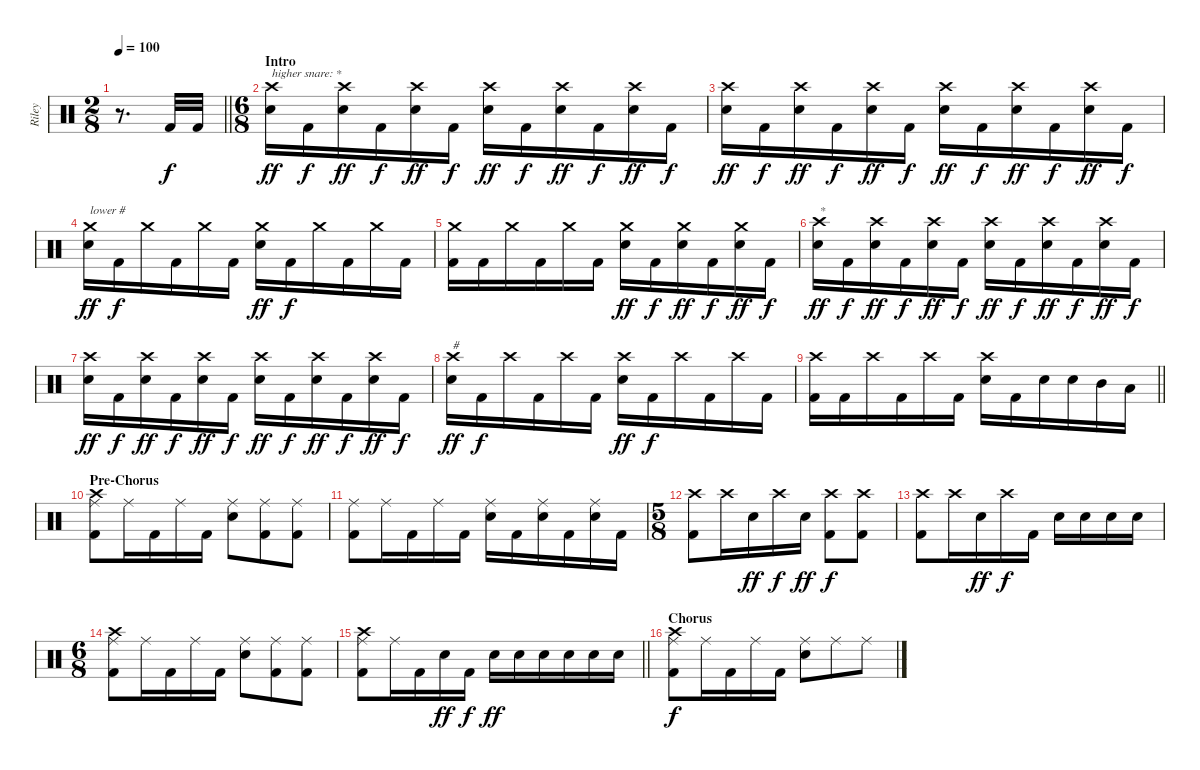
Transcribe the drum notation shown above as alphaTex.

\track ("Riley" "Riley") {instrument percussion}
\staff {score}
\articulation defaults
\ts (2 8)
\tempo 100
\clef neutral
\barLineRight lightlight
\ks c
r.8{d dy f} "Kick (hit) 2".32 "Kick (hit) 2".32 |
\ts (6 8)
\section ("" "Intro")
("Crash high (hit)" "Electric Snare (hit)").16{txt "higher snare: *" dy ff} "Kick (hit) 2".16{dy f} ("Crash high (hit)" "Electric Snare (hit)").16{dy ff} "Kick (hit) 2".16{dy f} ("Crash high (hit)" "Electric Snare (hit)").16{dy ff} "Kick (hit) 2".16{dy f} ("Crash high (hit)" "Electric Snare (hit)").16{dy ff} "Kick (hit) 2".16{dy f} ("Crash high (hit)" "Electric Snare (hit)").16{dy ff} "Kick (hit) 2".16{dy f} ("Crash high (hit)" "Electric Snare (hit)").16{dy ff} "Kick (hit) 2".16{dy f} |
("Crash high (hit)" "Electric Snare (hit)").16{dy ff} "Kick (hit) 2".16{dy f} ("Crash high (hit)" "Electric Snare (hit)").16{dy ff} "Kick (hit) 2".16{dy f} ("Crash high (hit)" "Electric Snare (hit)").16{dy ff} "Kick (hit) 2".16{dy f} ("Crash high (hit)" "Electric Snare (hit)").16{dy ff} "Kick (hit) 2".16{dy f} ("Crash high (hit)" "Electric Snare (hit)").16{dy ff} "Kick (hit) 2".16{dy f} ("Crash high (hit)" "Electric Snare (hit)").16{dy ff} "Kick (hit) 2".16{dy f} |
("Crash medium (hit)" "Electric Snare (hit)").16{txt "lower #" dy ff} "Kick (hit) 2".16{dy f} "Crash medium (hit)".16 "Kick (hit) 2".16 "Crash medium (hit)".16 "Kick (hit) 2".16 ("Crash medium (hit)" "Electric Snare (hit)").16{dy ff} "Kick (hit) 2".16{dy f} "Crash medium (hit)".16 "Kick (hit) 2".16 "Crash medium (hit)".16 "Kick (hit) 2".16 |
("Crash medium (hit)" "Kick (hit) 2").16 "Kick (hit) 2".16 "Crash medium (hit)".16 "Kick (hit) 2".16 "Crash medium (hit)".16 "Kick (hit) 2".16 ("Crash medium (hit)" "Electric Snare (hit)").16{dy ff} "Kick (hit) 2".16{dy f} ("Crash medium (hit)" "Electric Snare (hit)").16{dy ff} "Kick (hit) 2".16{dy f} ("Crash medium (hit)" "Electric Snare (hit)").16{dy ff} "Kick (hit) 2".16{dy f} |
("Crash high (hit)" "Electric Snare (hit)").16{txt "*" dy ff} "Kick (hit) 2".16{dy f} ("Crash high (hit)" "Electric Snare (hit)").16{dy ff} "Kick (hit) 2".16{dy f} ("Crash high (hit)" "Electric Snare (hit)").16{dy ff} "Kick (hit) 2".16{dy f} ("Crash high (hit)" "Electric Snare (hit)").16{dy ff} "Kick (hit) 2".16{dy f} ("Crash high (hit)" "Electric Snare (hit)").16{dy ff} "Kick (hit) 2".16{dy f} ("Crash high (hit)" "Electric Snare (hit)").16{dy ff} "Kick (hit) 2".16{dy f} |
("Crash high (hit)" "Electric Snare (hit)").16{dy ff} "Kick (hit) 2".16{dy f} ("Crash high (hit)" "Electric Snare (hit)").16{dy ff} "Kick (hit) 2".16{dy f} ("Crash high (hit)" "Electric Snare (hit)").16{dy ff} "Kick (hit) 2".16{dy f} ("Crash high (hit)" "Electric Snare (hit)").16{dy ff} "Kick (hit) 2".16{dy f} ("Crash high (hit)" "Electric Snare (hit)").16{dy ff} "Kick (hit) 2".16{dy f} ("Crash high (hit)" "Electric Snare (hit)").16{dy ff} "Kick (hit) 2".16{dy f} |
("Crash high (hit)" "Electric Snare (hit)").16{txt "#" dy ff} "Kick (hit) 2".16{dy f} "Crash high (hit)".16 "Kick (hit) 2".16 "Crash high (hit)".16 "Kick (hit) 2".16 ("Crash high (hit)" "Electric Snare (hit)").16{dy ff} "Kick (hit) 2".16{dy f} "Crash high (hit)".16 "Kick (hit) 2".16 "Crash high (hit)".16 "Kick (hit) 2".16 |
\barLineRight lightlight
("Crash high (hit)" "Kick (hit) 2").16 "Kick (hit) 2".16 "Crash high (hit)".16 "Kick (hit) 2".16 "Crash high (hit)".16 "Kick (hit) 2".16 ("Crash high (hit)" "Electric Snare (hit)").16 "Kick (hit) 2".16 "Electric Snare (hit)".16 "Electric Snare (hit)".16 "Mid Tom (hit)".16 "Low Tom (hit)".16 |
\section ("" "Pre-Chorus")
("Crash high (hit)" "Ride (middle)" "Kick (hit) 2").8 "Ride (middle)".16 "Kick (hit) 2".16 "Ride (middle)".16 "Kick (hit) 2".16 ("Ride (middle)" "Electric Snare (hit)").8 ("Ride (middle)" "Kick (hit) 2").8 ("Ride (middle)" "Kick (hit) 2").8 |
("Ride (middle)" "Kick (hit) 2").8 "Ride (middle)".16 "Kick (hit) 2".16 "Ride (middle)".16 "Kick (hit) 2".16 ("Ride (middle)" "Electric Snare (hit)").16 "Kick (hit) 2".16 ("Ride (middle)" "Electric Snare (hit)").16 "Kick (hit) 2".16 ("Ride (middle)" "Electric Snare (hit)").16 "Kick (hit) 2".16 |
\ts (5 8)
("Crash high (hit)" "Kick (hit) 2").8 "Crash high (hit)".16 "Electric Snare (hit)".16{dy ff} "Crash high (hit)".16{dy f} "Electric Snare (hit)".16{dy ff} ("Crash high (hit)" "Kick (hit) 2").8{dy f} ("Crash high (hit)" "Kick (hit) 2").8 |
("Crash high (hit)" "Kick (hit) 2").8 "Crash high (hit)".16 "Electric Snare (hit)".16{dy ff} "Crash high (hit)".16{dy f} "Kick (hit) 2".16 "Electric Snare (hit)".16 "Electric Snare (hit)".16 "Electric Snare (hit)".16 "Electric Snare (hit)".16 |
\ts (6 8)
("Crash high (hit)" "Ride (middle)" "Kick (hit) 2").8 "Ride (middle)".16 "Kick (hit) 2".16 "Ride (middle)".16 "Kick (hit) 2".16 ("Ride (middle)" "Electric Snare (hit)").8 ("Ride (middle)" "Kick (hit) 2").8 ("Ride (middle)" "Kick (hit) 2").8 |
\barLineRight lightlight
("Crash high (hit)" "Ride (middle)" "Kick (hit) 2").8 "Ride (middle)".16 "Kick (hit) 2".16 "Electric Snare (hit)".16{dy ff} "Kick (hit) 2".16{dy f} "Electric Snare (hit)".16{dy ff} "Electric Snare (hit)".16 "Electric Snare (hit)".16 "Electric Snare (hit)".16 "Electric Snare (hit)".16 "Electric Snare (hit)".16 |
\section ("" "Chorus")
("Crash high (hit)" "Ride (middle)" "Kick (hit) 2").8{dy f} "Ride (middle)".16 "Kick (hit) 2".16 "Ride (middle)".16 "Kick (hit) 2".16 ("Ride (middle)" "Electric Snare (hit)").8 "Ride (middle)".8 "Ride (middle)".8
